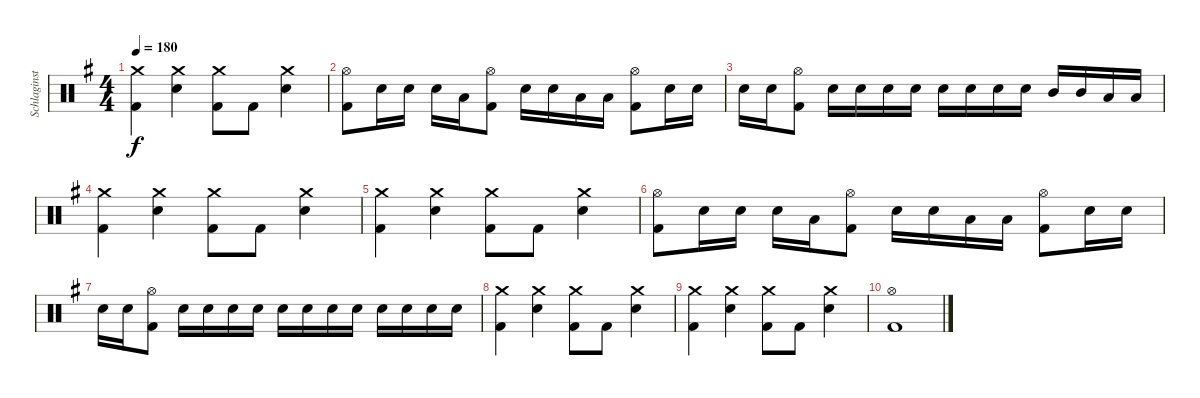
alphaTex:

\track ("Schlaginstrumente - Auswahl" "Schlaginst") {instrument percussion}
\staff {score}
\articulation defaults
\ts (4 4)
\tempo 180
\clef neutral
\ks g
("Crash medium (hit)" "Kick (hit) 2").4{dy f} ("Crash medium (hit)" "Electric Snare (hit)").4 ("Crash medium (hit)" "Kick (hit) 2").8 "Kick (hit) 2".8 ("Crash medium (hit)" "Electric Snare (hit)").4 |
("Hi-Hat (open)" "Kick (hit) 2").8 "Electric Snare (hit)".16 "Electric Snare (hit)".16 "Electric Snare (hit)".16 "Low Tom (hit)".16 ("Hi-Hat (open)" "Kick (hit) 2").8 "Electric Snare (hit)".16 "Electric Snare (hit)".16 "Low Tom (hit)".16 "Low Tom (hit)".16 ("Hi-Hat (open)" "Kick (hit) 2").8 "Electric Snare (hit)".16 "Electric Snare (hit)".16 |
"Electric Snare (hit)".16 "Electric Snare (hit)".16 ("Hi-Hat (open)" "Kick (hit) 2").8 "Electric Snare (hit)".16 "Electric Snare (hit)".16 "Electric Snare (hit)".16 "Electric Snare (hit)".16 "Electric Snare (hit)".16 "Electric Snare (hit)".16 "Electric Snare (hit)".16 "Electric Snare (hit)".16 "Mid Tom (hit)".16 "Mid Tom (hit)".16 "Low Tom (hit)".16 "Low Tom (hit)".16 |
("Crash medium (hit)" "Kick (hit) 2").4 ("Crash medium (hit)" "Electric Snare (hit)").4 ("Crash medium (hit)" "Kick (hit) 2").8 "Kick (hit) 2".8 ("Crash medium (hit)" "Electric Snare (hit)").4 |
("Crash medium (hit)" "Kick (hit) 2").4 ("Crash medium (hit)" "Electric Snare (hit)").4 ("Crash medium (hit)" "Kick (hit) 2").8 "Kick (hit) 2".8 ("Crash medium (hit)" "Electric Snare (hit)").4 |
("Hi-Hat (open)" "Kick (hit) 2").8 "Electric Snare (hit)".16 "Electric Snare (hit)".16 "Electric Snare (hit)".16 "Low Tom (hit)".16 ("Hi-Hat (open)" "Kick (hit) 2").8 "Electric Snare (hit)".16 "Electric Snare (hit)".16 "Low Tom (hit)".16 "Low Tom (hit)".16 ("Hi-Hat (open)" "Kick (hit) 2").8 "Electric Snare (hit)".16 "Electric Snare (hit)".16 |
"Electric Snare (hit)".16 "Electric Snare (hit)".16 ("Hi-Hat (open)" "Kick (hit) 2").8 "Electric Snare (hit)".16 "Electric Snare (hit)".16 "Electric Snare (hit)".16 "Electric Snare (hit)".16 "Electric Snare (hit)".16 "Electric Snare (hit)".16 "Electric Snare (hit)".16 "Electric Snare (hit)".16 "Electric Snare (hit)".16 "Electric Snare (hit)".16 "Electric Snare (hit)".16 "Electric Snare (hit)".16 |
("Crash medium (hit)" "Kick (hit) 2").4 ("Crash medium (hit)" "Electric Snare (hit)").4 ("Crash medium (hit)" "Kick (hit) 2").8 "Kick (hit) 2".8 ("Crash medium (hit)" "Electric Snare (hit)").4 |
("Crash medium (hit)" "Kick (hit) 2").4 ("Crash medium (hit)" "Electric Snare (hit)").4 ("Crash medium (hit)" "Kick (hit) 2").8 "Kick (hit) 2".8 ("Crash medium (hit)" "Electric Snare (hit)").4 |
("Hi-Hat (open)" "Kick (hit) 2").1
